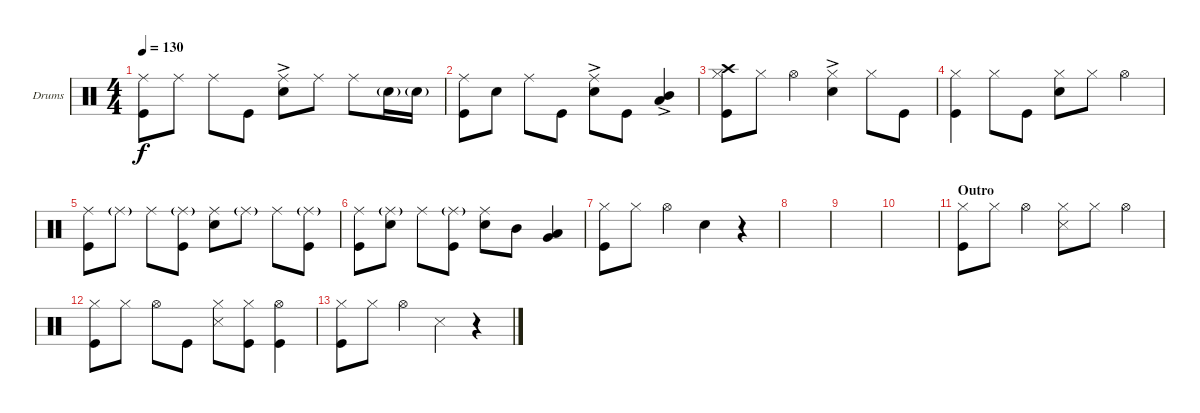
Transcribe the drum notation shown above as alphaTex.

\bracketExtendMode groupsimilarinstruments
\firstSystemTrackNameOrientation horizontal
\otherSystemsTrackNameOrientation horizontal
\track ("Drumkit" "Drums") {instrument percussion}
\staff {score}
\articulation defaults
\ts (4 4)
\tempo 130
\clef neutral
\ks c
("Kick (hit)" "Ride (middle)").8{dy f} "Ride (middle)".8 "Ride (middle)".8 "Kick (hit)".8 ("Snare (hit) 2"{ac} "Ride (middle)").8 "Ride (middle)".8 "Ride (middle)".8 "Snare (hit) 2"{g}.16 "Snare (hit) 2"{g}.16 |
("Kick (hit)" "Ride (middle)").8 "Snare (hit) 2".8 "Ride (middle)".8 "Kick (hit)".8 ("Snare (hit) 2"{ac} "Ride (middle)").8 "Kick (hit)".8 ("Low Tom (hit)" "Mid Tom (hit)"{ac}).4 |
("Hi-Hat (closed)" "Kick (hit)" "Crash high (hit)").8 "Hi-Hat (closed)".8 "Hi-Hat (open)".4 ("Hi-Hat (closed)" "Snare (hit) 2"{ac}).4 "Hi-Hat (closed)".8 "Kick (hit)".8 |
("Kick (hit)" "Hi-Hat (closed)").4 "Hi-Hat (closed)".8 "Kick (hit)".8 ("Snare (hit) 2" "Hi-Hat (closed)").8 "Hi-Hat (closed)".8 "Hi-Hat (open)".4 |
("Ride (middle)" "Kick (hit)").8 "Ride (middle)"{g}.8 "Ride (middle)".8 ("Ride (middle)"{g} "Kick (hit)").8 ("Ride (middle)" "Snare (hit) 2").8 "Ride (middle)"{g}.8 "Ride (middle)".8 ("Ride (middle)"{g} "Kick (hit)").8 |
("Ride (middle)" "Kick (hit)").8 ("Ride (middle)"{g} "Snare (hit) 2").8 "Ride (middle)".8 ("Ride (middle)"{g} "Kick (hit)").8 ("Ride (middle)" "Snare (hit) 2").8 "Mid Tom (hit)".8 ("Low Tom (hit)" "Very Low Tom (hit)").4 |
("Kick (hit)" "Hi-Hat (closed)").8 "Hi-Hat (closed)".8 "Hi-Hat (open)".4 "Snare (hit) 2".4 r.4 |
|
|
|
\section ("" "Outro")
("Kick (hit)" "Hi-Hat (closed)").8 "Hi-Hat (closed)".8 "Hi-Hat (open)".4 ("Hi-Hat (closed)" "Snare (side stick) 3").8 "Hi-Hat (closed)".8 "Hi-Hat (open)".4 |
("Kick (hit)" "Hi-Hat (closed)").8 "Hi-Hat (closed)".8 "Hi-Hat (open)".8 "Kick (hit)".8 ("Snare (side stick) 3" "Hi-Hat (closed)").8 ("Kick (hit)" "Hi-Hat (closed)").8 ("Kick (hit)" "Hi-Hat (open)").4 |
("Kick (hit)" "Hi-Hat (closed)").8 "Hi-Hat (closed)".8 "Hi-Hat (open)".4 "Snare (side stick) 3".4 r.4
